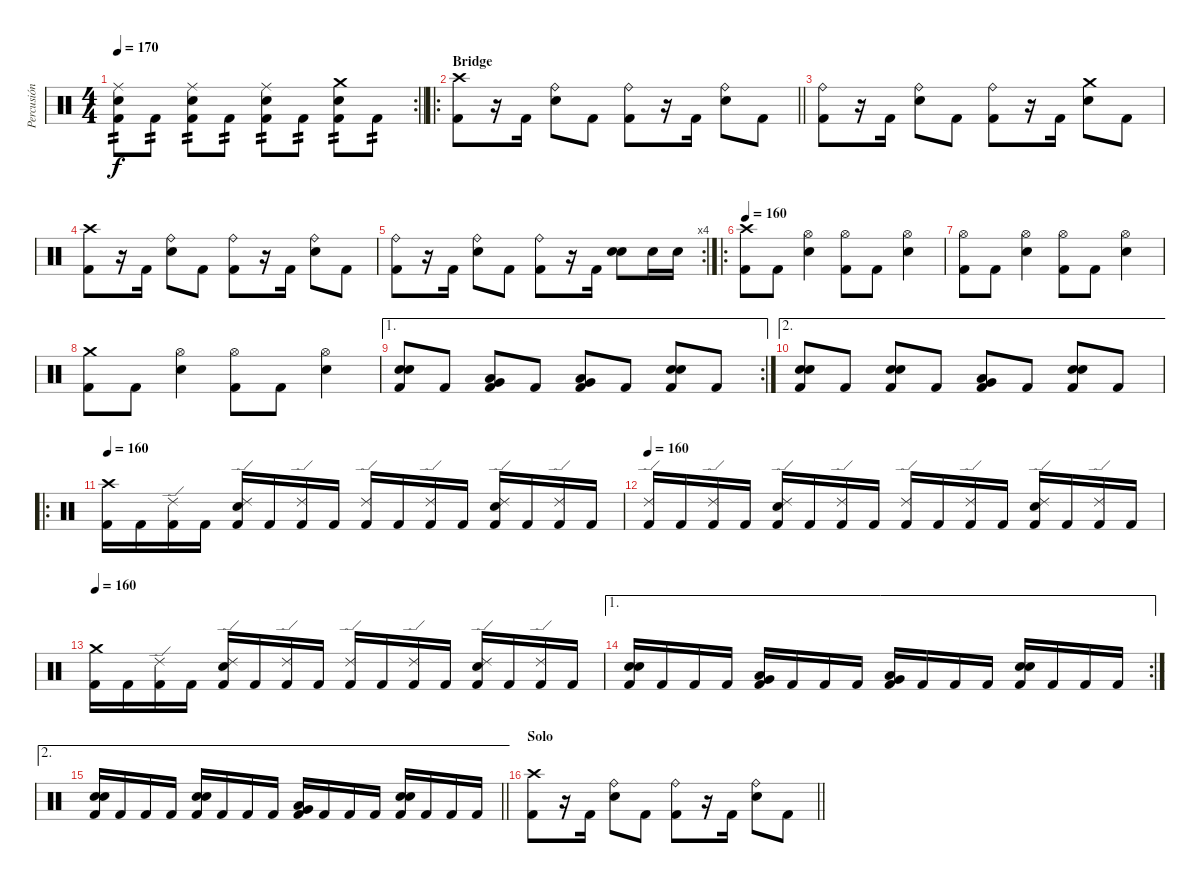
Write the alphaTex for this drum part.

\track ("Percusión" "Percusión") {instrument percussion}
\staff
\articulation defaults
\rc 2
\ts (4 4)
\tempo 170
\clef neutral
\barLineRight lightlight
\ks c
("Kick (hit) 2" "Electric Snare (hit)" "Ride (middle)").8{tp 2 dy f} "Kick (hit) 2".8{tp 2} ("Kick (hit) 2" "Electric Snare (hit)" "Ride (middle)").8{tp 2} "Kick (hit) 2".8{tp 2} ("Kick (hit) 2" "Electric Snare (hit)" "Ride (middle)").8{tp 2} "Kick (hit) 2".8{tp 2} ("Kick (hit) 2" "Electric Snare (hit)" "Crash medium (hit)").8{tp 2} "Kick (hit) 2".8{tp 2} |
\ro
\section ("" "Bridge")
\barLineRight lightlight
("Kick (hit) 2" "Crash high (hit)").8 r.16 "Kick (hit) 2".16 ("Electric Snare (hit)" "Ride (bell)").8 "Kick (hit) 2".8 ("Kick (hit) 2" "Ride (bell)").8 r.16 "Kick (hit) 2".16 ("Electric Snare (hit)" "Ride (bell)").8 "Kick (hit) 2".8 |
("Kick (hit) 2" "Ride (bell)").8 r.16 "Kick (hit) 2".16 ("Electric Snare (hit)" "Ride (bell)").8 "Kick (hit) 2".8 ("Kick (hit) 2" "Ride (bell)").8 r.16 "Kick (hit) 2".16 ("Electric Snare (hit)" "Crash medium (hit)").8 "Kick (hit) 2".8 |
("Kick (hit) 2" "Crash high (hit)").8 r.16 "Kick (hit) 2".16 ("Electric Snare (hit)" "Ride (bell)").8 "Kick (hit) 2".8 ("Kick (hit) 2" "Ride (bell)").8 r.16 "Kick (hit) 2".16 ("Electric Snare (hit)" "Ride (bell)").8 "Kick (hit) 2".8 |
\rc 4
("Kick (hit) 2" "Ride (bell)").8 r.16 "Kick (hit) 2".16 ("Electric Snare (hit)" "Ride (bell)").8 "Kick (hit) 2".8 ("Kick (hit) 2" "Ride (bell)").8 r.16 "Kick (hit) 2".16 ("Electric Snare (hit)" "Snare (hit) 2").8 "Electric Snare (hit)".16 "Electric Snare (hit)".16 |
\ro
\tempo 160
("Kick (hit) 2" "Crash high (hit)").8 "Kick (hit) 2".8 ("Electric Snare (hit)" "Hi-Hat (open)").4 ("Kick (hit) 2" "Hi-Hat (open)").8 "Kick (hit) 2".8 ("Electric Snare (hit)" "Hi-Hat (open)").4 |
("Kick (hit) 2" "Hi-Hat (open)").8 "Kick (hit) 2".8 ("Electric Snare (hit)" "Hi-Hat (open)").4 ("Kick (hit) 2" "Hi-Hat (open)").8 "Kick (hit) 2".8 ("Electric Snare (hit)" "Hi-Hat (open)").4 |
("Kick (hit) 2" "Crash medium (hit)").8 "Kick (hit) 2".8 ("Electric Snare (hit)" "Hi-Hat (open)").4 ("Kick (hit) 2" "Hi-Hat (open)").8 "Kick (hit) 2".8 ("Electric Snare (hit)" "Hi-Hat (open)").4 |
\ae 1
\rc 2
("Kick (hit) 2" "Electric Snare (hit)" "Snare (hit) 2").8 "Kick (hit) 2".8 ("Kick (hit) 2" "Low Tom (hit)" "Very Low Tom (hit)").8 "Kick (hit) 2".8 ("Kick (hit) 2" "Very Low Tom (hit)" "Low Floor Tom (hit)").8 "Kick (hit) 2".8 ("Kick (hit) 2" "Electric Snare (hit)" "Snare (hit) 2").8 "Kick (hit) 2".8 |
\ae 2
("Kick (hit) 2" "Electric Snare (hit)" "Snare (hit) 2").8 "Kick (hit) 2".8 ("Kick (hit) 2" "Electric Snare (hit)" "Snare (hit) 2").8 "Kick (hit) 2".8 ("Kick (hit) 2" "Very Low Tom (hit)" "Low Floor Tom (hit)").8 "Kick (hit) 2".8 ("Kick (hit) 2" "Electric Snare (hit)" "Snare (hit) 2").8 "Kick (hit) 2".8 |
\ro
\tempo 160
("Kick (hit) 2" "Crash high (hit)").16 "Kick (hit) 2".16 ("Kick (hit) 2" "Ride (edge) 2").16 "Kick (hit) 2".16 ("Kick (hit) 2" "Electric Snare (hit)" "Ride (edge) 2").16 "Kick (hit) 2".16 ("Kick (hit) 2" "Ride (edge) 2").16 "Kick (hit) 2".16 ("Kick (hit) 2" "Ride (edge) 2").16 "Kick (hit) 2".16 ("Kick (hit) 2" "Ride (edge) 2").16 "Kick (hit) 2".16 ("Kick (hit) 2" "Electric Snare (hit)" "Ride (edge) 2").16 "Kick (hit) 2".16 ("Kick (hit) 2" "Ride (edge) 2").16 "Kick (hit) 2".16 |
\tempo 160
("Kick (hit) 2" "Ride (edge) 2").16 "Kick (hit) 2".16 ("Kick (hit) 2" "Ride (edge) 2").16 "Kick (hit) 2".16 ("Kick (hit) 2" "Electric Snare (hit)" "Ride (edge) 2").16 "Kick (hit) 2".16 ("Kick (hit) 2" "Ride (edge) 2").16 "Kick (hit) 2".16 ("Kick (hit) 2" "Ride (edge) 2").16 "Kick (hit) 2".16 ("Kick (hit) 2" "Ride (edge) 2").16 "Kick (hit) 2".16 ("Kick (hit) 2" "Electric Snare (hit)" "Ride (edge) 2").16 "Kick (hit) 2".16 ("Kick (hit) 2" "Ride (edge) 2").16 "Kick (hit) 2".16 |
\tempo 160
("Kick (hit) 2" "Crash medium (hit)").16 "Kick (hit) 2".16 ("Kick (hit) 2" "Ride (edge) 2").16 "Kick (hit) 2".16 ("Kick (hit) 2" "Electric Snare (hit)" "Ride (edge) 2").16 "Kick (hit) 2".16 ("Kick (hit) 2" "Ride (edge) 2").16 "Kick (hit) 2".16 ("Kick (hit) 2" "Ride (edge) 2").16 "Kick (hit) 2".16 ("Kick (hit) 2" "Ride (edge) 2").16 "Kick (hit) 2".16 ("Kick (hit) 2" "Electric Snare (hit)" "Ride (edge) 2").16 "Kick (hit) 2".16 ("Kick (hit) 2" "Ride (edge) 2").16 "Kick (hit) 2".16 |
\ae 1
\rc 2
("Kick (hit) 2" "Electric Snare (hit)" "Snare (hit) 2").16 "Kick (hit) 2".16 "Kick (hit) 2".16 "Kick (hit) 2".16 ("Kick (hit) 2" "Low Tom (hit)" "Very Low Tom (hit)").16 "Kick (hit) 2".16 "Kick (hit) 2".16 "Kick (hit) 2".16 ("Kick (hit) 2" "Very Low Tom (hit)" "Low Floor Tom (hit)").16 "Kick (hit) 2".16 "Kick (hit) 2".16 "Kick (hit) 2".16 ("Kick (hit) 2" "Electric Snare (hit)" "Snare (hit) 2").16 "Kick (hit) 2".16 "Kick (hit) 2".16 "Kick (hit) 2".16 |
\ae 2
\barLineRight lightlight
("Kick (hit) 2" "Electric Snare (hit)" "Snare (hit) 2").16 "Kick (hit) 2".16 "Kick (hit) 2".16 "Kick (hit) 2".16 ("Kick (hit) 2" "Electric Snare (hit)" "Snare (hit) 2").16 "Kick (hit) 2".16 "Kick (hit) 2".16 "Kick (hit) 2".16 ("Kick (hit) 2" "Very Low Tom (hit)" "Low Floor Tom (hit)").16 "Kick (hit) 2".16 "Kick (hit) 2".16 "Kick (hit) 2".16 ("Kick (hit) 2" "Electric Snare (hit)" "Snare (hit) 2").16 "Kick (hit) 2".16 "Kick (hit) 2".16 "Kick (hit) 2".16 |
\section ("" "Solo")
\barLineRight lightlight
("Kick (hit) 2" "Crash high (hit)").8 r.16 "Kick (hit) 2".16 ("Electric Snare (hit)" "Ride (bell)").8 "Kick (hit) 2".8 ("Kick (hit) 2" "Ride (bell)").8 r.16 "Kick (hit) 2".16 ("Electric Snare (hit)" "Ride (bell)").8 "Kick (hit) 2".8
